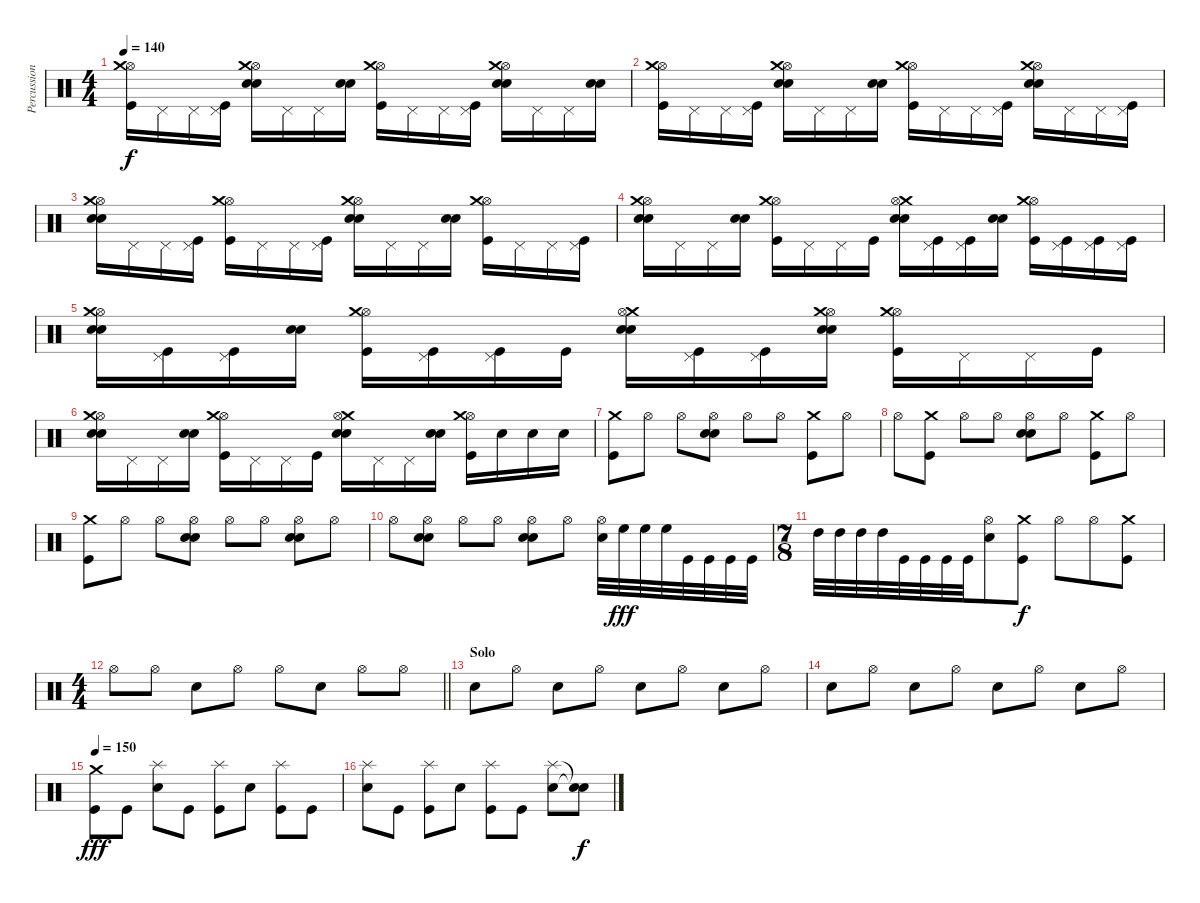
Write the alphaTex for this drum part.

\track ("Percussions" "Percussion") {instrument percussion}
\staff {score}
\articulation defaults
\ts (4 4)
\tempo 140
\clef neutral
\ks c
("Hi-Hat (open)" "Crash medium (hit)" "Kick (hit)").16{dy f} "Pedal Hi-Hat (hit)".16 "Pedal Hi-Hat (hit)".16 ("Pedal Hi-Hat (hit)" "Kick (hit)").16 ("Hi-Hat (open)" "Electric Snare (hit)" "Electric Snare (hit)" "Crash medium (hit)").16 "Pedal Hi-Hat (hit)".16 "Pedal Hi-Hat (hit)".16 ("Electric Snare (hit)" "Electric Snare (hit)").16 ("Hi-Hat (open)" "Crash medium (hit)" "Kick (hit)").16 "Pedal Hi-Hat (hit)".16 "Pedal Hi-Hat (hit)".16 ("Pedal Hi-Hat (hit)" "Kick (hit)").16 ("Hi-Hat (open)" "Electric Snare (hit)" "Electric Snare (hit)" "Crash medium (hit)").16 "Pedal Hi-Hat (hit)".16 "Pedal Hi-Hat (hit)".16 ("Electric Snare (hit)" "Electric Snare (hit)").16 |
("Hi-Hat (open)" "Crash medium (hit)" "Kick (hit)").16 "Pedal Hi-Hat (hit)".16 "Pedal Hi-Hat (hit)".16 ("Pedal Hi-Hat (hit)" "Kick (hit)").16 ("Hi-Hat (open)" "Electric Snare (hit)" "Electric Snare (hit)" "Crash medium (hit)").16 "Pedal Hi-Hat (hit)".16 "Pedal Hi-Hat (hit)".16 ("Electric Snare (hit)" "Electric Snare (hit)").16 ("Hi-Hat (open)" "Crash medium (hit)" "Kick (hit)").16 "Pedal Hi-Hat (hit)".16 "Pedal Hi-Hat (hit)".16 ("Pedal Hi-Hat (hit)" "Kick (hit)").16 ("Hi-Hat (open)" "Electric Snare (hit)" "Electric Snare (hit)" "Crash medium (hit)").16 "Pedal Hi-Hat (hit)".16 "Pedal Hi-Hat (hit)".16 ("Pedal Hi-Hat (hit)" "Kick (hit)").16 |
("Hi-Hat (open)" "Crash medium (hit)" "Electric Snare (hit)" "Electric Snare (hit)").16 "Pedal Hi-Hat (hit)".16 "Pedal Hi-Hat (hit)".16 ("Pedal Hi-Hat (hit)" "Kick (hit)").16 ("Hi-Hat (open)" "Crash medium (hit)" "Kick (hit)").16 "Pedal Hi-Hat (hit)".16 "Pedal Hi-Hat (hit)".16 ("Pedal Hi-Hat (hit)" "Kick (hit)").16 ("Hi-Hat (open)" "Crash medium (hit)" "Electric Snare (hit)" "Electric Snare (hit)").16 "Pedal Hi-Hat (hit)".16 "Pedal Hi-Hat (hit)".16 ("Electric Snare (hit)" "Electric Snare (hit)").16 ("Hi-Hat (open)" "Crash medium (hit)" "Kick (hit)").16 "Pedal Hi-Hat (hit)".16 "Pedal Hi-Hat (hit)".16 ("Pedal Hi-Hat (hit)" "Kick (hit)").16 |
("Electric Snare (hit)" "Hi-Hat (open)" "Electric Snare (hit)" "Crash medium (hit)").16 "Pedal Hi-Hat (hit)".16 "Pedal Hi-Hat (hit)".16 ("Electric Snare (hit)" "Electric Snare (hit)").16 ("Hi-Hat (open)" "Crash medium (hit)" "Kick (hit)").16 "Pedal Hi-Hat (hit)".16 "Pedal Hi-Hat (hit)".16 "Kick (hit)".16 ("Crash medium (hit)" "Hi-Hat (open)" "Electric Snare (hit)" "Electric Snare (hit)").16 ("Pedal Hi-Hat (hit)" "Kick (hit)").16 ("Pedal Hi-Hat (hit)" "Kick (hit)").16 ("Electric Snare (hit)" "Electric Snare (hit)").16 ("Hi-Hat (open)" "Crash medium (hit)" "Kick (hit)").16 ("Pedal Hi-Hat (hit)" "Kick (hit)").16 ("Pedal Hi-Hat (hit)" "Kick (hit)").16 ("Pedal Hi-Hat (hit)" "Kick (hit)").16 |
("Electric Snare (hit)" "Hi-Hat (open)" "Electric Snare (hit)" "Crash medium (hit)").16 ("Pedal Hi-Hat (hit)" "Kick (hit)").16 ("Pedal Hi-Hat (hit)" "Kick (hit)").16 ("Electric Snare (hit)" "Electric Snare (hit)").16 ("Hi-Hat (open)" "Crash medium (hit)" "Kick (hit)").16 ("Pedal Hi-Hat (hit)" "Kick (hit)").16 ("Pedal Hi-Hat (hit)" "Kick (hit)").16 "Kick (hit)".16 ("Crash medium (hit)" "Hi-Hat (open)" "Electric Snare (hit)" "Electric Snare (hit)").16 ("Pedal Hi-Hat (hit)" "Kick (hit)").16 ("Pedal Hi-Hat (hit)" "Kick (hit)").16 ("Hi-Hat (open)" "Electric Snare (hit)" "Crash medium (hit)" "Electric Snare (hit)").16 ("Hi-Hat (open)" "Crash medium (hit)" "Kick (hit)").16 "Pedal Hi-Hat (hit)".16 "Pedal Hi-Hat (hit)".16 "Kick (hit)".16 |
("Hi-Hat (open)" "Electric Snare (hit)" "Crash medium (hit)" "Electric Snare (hit)").16 "Pedal Hi-Hat (hit)".16 "Pedal Hi-Hat (hit)".16 ("Electric Snare (hit)" "Electric Snare (hit)").16 ("Hi-Hat (open)" "Crash medium (hit)" "Kick (hit)").16 "Pedal Hi-Hat (hit)".16 "Pedal Hi-Hat (hit)".16 "Kick (hit)".16 ("Crash medium (hit)" "Hi-Hat (open)" "Electric Snare (hit)" "Electric Snare (hit)").16 "Pedal Hi-Hat (hit)".16 "Pedal Hi-Hat (hit)".16 ("Electric Snare (hit)" "Electric Snare (hit)").16 ("Hi-Hat (open)" "Crash medium (hit)" "Kick (hit)").16 "Electric Snare (hit)".16 "Electric Snare (hit)".16 "Electric Snare (hit)".16 |
("Crash medium (hit)" "Kick (hit)").8 "Hi-Hat (open)".8 "Hi-Hat (open)".8 ("Hi-Hat (open)" "Electric Snare (hit)" "Electric Snare (hit)").8 "Hi-Hat (open)".8 "Hi-Hat (open)".8 ("Crash medium (hit)" "Kick (hit)").8 "Hi-Hat (open)".8 |
"Hi-Hat (open)".8 ("Crash medium (hit)" "Kick (hit)").8 "Hi-Hat (open)".8 "Hi-Hat (open)".8 ("Hi-Hat (open)" "Electric Snare (hit)" "Electric Snare (hit)").8 "Hi-Hat (open)".8 ("Crash medium (hit)" "Kick (hit)").8 "Hi-Hat (open)".8 |
("Crash medium (hit)" "Kick (hit)").8 "Hi-Hat (open)".8 "Hi-Hat (open)".8 ("Hi-Hat (open)" "Electric Snare (hit)" "Electric Snare (hit)").8 "Hi-Hat (open)".8 "Hi-Hat (open)".8 ("Hi-Hat (open)" "Electric Snare (hit)" "Electric Snare (hit)").8 "Hi-Hat (open)".8 |
"Hi-Hat (open)".8 ("Hi-Hat (open)" "Electric Snare (hit)" "Electric Snare (hit)").8 "Hi-Hat (open)".8 "Hi-Hat (open)".8 ("Hi-Hat (open)" "Electric Snare (hit)" "Electric Snare (hit)").8 "Hi-Hat (open)".8 ("Hi-Hat (open)" "Electric Snare (hit)").32 "High Floor Tom (hit)".32{dy fff volume 12} "High Floor Tom (hit)".32 "High Floor Tom (hit)".32 "Kick (hit)".32 "Kick (hit)".32 "Kick (hit)".32 "Kick (hit)".32 |
\ts (7 8)
"High Tom (hit)".32 "High Tom (hit)".32 "High Tom (hit)".32 "High Tom (hit)".32 "Kick (hit)".32 "Kick (hit)".32 "Kick (hit)".32 "Kick (hit)".32 ("Hi-Hat (open)" "Electric Snare (hit)").8{volume 16} ("Crash medium (hit)" "Kick (hit)").8{dy f} "Hi-Hat (open)".8 "Hi-Hat (open)".8 ("Crash medium (hit)" "Kick (hit)").8 |
\ts (4 4)
\barLineRight lightlight "Hi-Hat (open)".8 "Hi-Hat (open)".8 "Electric Snare (hit)".8 "Hi-Hat (open)".8 "Hi-Hat (open)".8 "Electric Snare (hit)".8 "Hi-Hat (open)".8 "Hi-Hat (open)".8
|
\section ("" "Solo")
"Electric Snare (hit)".8 "Hi-Hat (open)".8 "Electric Snare (hit)".8 "Hi-Hat (open)".8 "Electric Snare (hit)".8 "Hi-Hat (open)".8 "Electric Snare (hit)".8 "Hi-Hat (open)".8 |
"Electric Snare (hit)".8 "Hi-Hat (open)".8 "Electric Snare (hit)".8 "Hi-Hat (open)".8 "Electric Snare (hit)".8 "Hi-Hat (open)".8 "Electric Snare (hit)".8 "Hi-Hat (open)".8 |
\tempo 150
("Crash medium (hit)" "Kick (hit)").8{dy fff volume 16} "Kick (hit)".8 ("Splash (hit)" "Electric Snare (hit)").8 "Kick (hit)".8 ("Splash (hit)" "Kick (hit)").8 "Electric Snare (hit)".8 ("Splash (hit)" "Kick (hit)").8 "Kick (hit)".8 |
("Splash (hit)" "Electric Snare (hit)").8 "Kick (hit)".8 ("Splash (hit)" "Kick (hit)").8 "Electric Snare (hit)".8 ("Splash (hit)" "Kick (hit)").8 "Kick (hit)".8 ("Splash (hit)" "Electric Snare (hit)").8 ("Snare (hit)"{t} "Snare (hit)"{t}).8{dy f}
